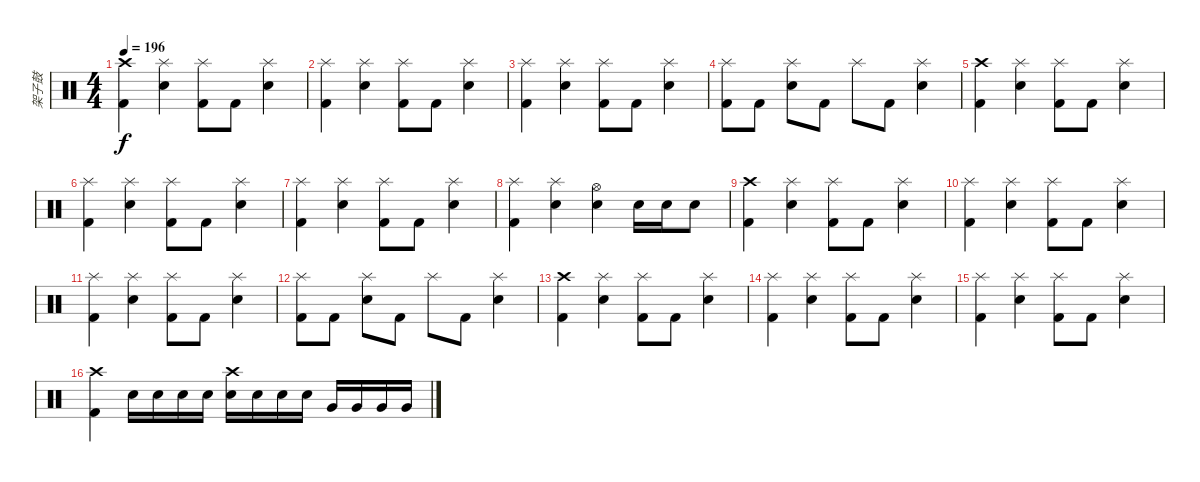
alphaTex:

\track ("架子鼓" "架子鼓") {instrument percussion}
\staff {score}
\articulation defaults
\ts (4 4)
\tempo 196
\clef neutral
\ks c
("Crash high (hit)" "Kick (hit) 2").4{dy f} ("Splash (hit)" "Snare (hit) 2").4 ("Splash (hit)" "Kick (hit) 2").8 "Kick (hit) 2".8 ("Splash (hit)" "Snare (hit) 2").4 |
("Splash (hit)" "Kick (hit) 2").4 ("Splash (hit)" "Snare (hit) 2").4 ("Splash (hit)" "Kick (hit) 2").8 "Kick (hit) 2".8 ("Splash (hit)" "Snare (hit) 2").4 |
("Splash (hit)" "Kick (hit) 2").4 ("Splash (hit)" "Snare (hit) 2").4 ("Splash (hit)" "Kick (hit) 2").8 "Kick (hit) 2".8 ("Splash (hit)" "Snare (hit) 2").4 |
("Splash (hit)" "Kick (hit) 2").8 "Kick (hit) 2".8 ("Splash (hit)" "Snare (hit) 2").8 "Kick (hit) 2".8 "Splash (hit)".8 "Kick (hit) 2".8 ("Splash (hit)" "Snare (hit) 2").4 |
("Crash high (hit)" "Kick (hit) 2").4 ("Splash (hit)" "Snare (hit) 2").4 ("Splash (hit)" "Kick (hit) 2").8 "Kick (hit) 2".8 ("Splash (hit)" "Snare (hit) 2").4 |
("Splash (hit)" "Kick (hit) 2").4 ("Splash (hit)" "Snare (hit) 2").4 ("Splash (hit)" "Kick (hit) 2").8 "Kick (hit) 2".8 ("Splash (hit)" "Snare (hit) 2").4 |
("Splash (hit)" "Kick (hit) 2").4 ("Splash (hit)" "Snare (hit) 2").4 ("Splash (hit)" "Kick (hit) 2").8 "Kick (hit) 2".8 ("Splash (hit)" "Snare (hit) 2").4 |
("Splash (hit)" "Kick (hit) 2").4 ("Splash (hit)" "Snare (hit) 2").4 ("Hi-Hat (open)" "Snare (hit) 2").4 "Snare (hit) 2".16 "Snare (hit) 2".16 "Snare (hit) 2".8 |
("Crash high (hit)" "Kick (hit) 2").4 ("Splash (hit)" "Snare (hit) 2").4 ("Splash (hit)" "Kick (hit) 2").8 "Kick (hit) 2".8 ("Splash (hit)" "Snare (hit) 2").4 |
("Splash (hit)" "Kick (hit) 2").4 ("Splash (hit)" "Snare (hit) 2").4 ("Splash (hit)" "Kick (hit) 2").8 "Kick (hit) 2".8 ("Splash (hit)" "Snare (hit) 2").4 |
("Splash (hit)" "Kick (hit) 2").4 ("Splash (hit)" "Snare (hit) 2").4 ("Splash (hit)" "Kick (hit) 2").8 "Kick (hit) 2".8 ("Splash (hit)" "Snare (hit) 2").4 |
("Splash (hit)" "Kick (hit) 2").8 "Kick (hit) 2".8 ("Splash (hit)" "Snare (hit) 2").8 "Kick (hit) 2".8 "Splash (hit)".8 "Kick (hit) 2".8 ("Splash (hit)" "Snare (hit) 2").4 |
("Crash high (hit)" "Kick (hit) 2").4 ("Splash (hit)" "Snare (hit) 2").4 ("Splash (hit)" "Kick (hit) 2").8 "Kick (hit) 2".8 ("Splash (hit)" "Snare (hit) 2").4 |
("Splash (hit)" "Kick (hit) 2").4 ("Splash (hit)" "Snare (hit) 2").4 ("Splash (hit)" "Kick (hit) 2").8 "Kick (hit) 2".8 ("Splash (hit)" "Snare (hit) 2").4 |
("Splash (hit)" "Kick (hit) 2").4 ("Splash (hit)" "Snare (hit) 2").4 ("Splash (hit)" "Kick (hit) 2").8 "Kick (hit) 2".8 ("Splash (hit)" "Snare (hit) 2").4 |
("Crash high (hit)" "Kick (hit) 2").4 "Snare (hit) 2".16 "Snare (hit) 2".16 "Snare (hit) 2".16 "Snare (hit) 2".16 ("Crash high (hit)" "Electric Snare (hit)").16 "Electric Snare (hit)".16 "Electric Snare (hit)".16 "Electric Snare (hit)".16 "Very Low Tom (hit)".16 "Very Low Tom (hit)".16 "Very Low Tom (hit)".16 "Very Low Tom (hit)".16
